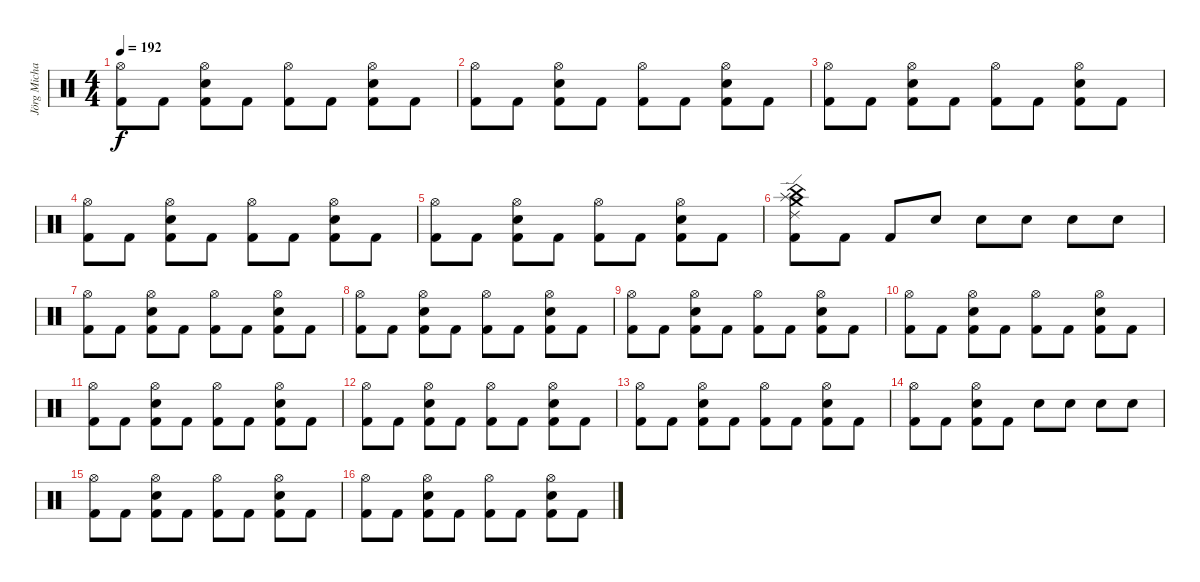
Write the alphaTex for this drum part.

\track ("Jörg Michael" "Jörg Micha") {instrument percussion}
\staff {score}
\articulation defaults
\ts (4 4)
\tempo 192
\clef neutral
\ks c
("Hi-Hat (open)" "Kick (hit) 2").8{dy f} "Kick (hit) 2".8 ("Electric Snare (hit)" "Hi-Hat (open)" "Kick (hit) 2").8 "Kick (hit) 2".8 ("Hi-Hat (open)" "Kick (hit) 2").8 "Kick (hit) 2".8 ("Electric Snare (hit)" "Hi-Hat (open)" "Kick (hit) 2").8 "Kick (hit) 2".8 |
("Hi-Hat (open)" "Kick (hit) 2").8 "Kick (hit) 2".8 ("Electric Snare (hit)" "Hi-Hat (open)" "Kick (hit) 2").8 "Kick (hit) 2".8 ("Hi-Hat (open)" "Kick (hit) 2").8 "Kick (hit) 2".8 ("Electric Snare (hit)" "Hi-Hat (open)" "Kick (hit) 2").8 "Kick (hit) 2".8 |
("Hi-Hat (open)" "Kick (hit) 2").8 "Kick (hit) 2".8 ("Electric Snare (hit)" "Hi-Hat (open)" "Kick (hit) 2").8 "Kick (hit) 2".8 ("Hi-Hat (open)" "Kick (hit) 2").8 "Kick (hit) 2".8 ("Electric Snare (hit)" "Hi-Hat (open)" "Kick (hit) 2").8 "Kick (hit) 2".8 |
("Hi-Hat (open)" "Kick (hit) 2").8 "Kick (hit) 2".8 ("Electric Snare (hit)" "Hi-Hat (open)" "Kick (hit) 2").8 "Kick (hit) 2".8 ("Hi-Hat (open)" "Kick (hit) 2").8 "Kick (hit) 2".8 ("Electric Snare (hit)" "Hi-Hat (open)" "Kick (hit) 2").8 "Kick (hit) 2".8 |
("Hi-Hat (open)" "Kick (hit) 2").8 "Kick (hit) 2".8 ("Electric Snare (hit)" "Hi-Hat (open)" "Kick (hit) 2").8 "Kick (hit) 2".8 ("Hi-Hat (open)" "Kick (hit) 2").8 "Kick (hit) 2".8 ("Electric Snare (hit)" "Hi-Hat (open)" "Kick (hit) 2").8 "Kick (hit) 2".8 |
("Ride (edge) 2" "Crash medium (hit)" "Splash (hit)" "China (hit)" "Kick (hit) 2").8 "Kick (hit) 2".8 "Kick (hit) 2".8 "Electric Snare (hit)".8{volume 6} "Electric Snare (hit)".8{volume 7} "Electric Snare (hit)".8{volume 8} "Electric Snare (hit)".8{volume 9} "Electric Snare (hit)".8{volume 10} |
("Hi-Hat (open)" "Kick (hit) 2").8{volume 11} "Kick (hit) 2".8 ("Electric Snare (hit)" "Hi-Hat (open)" "Kick (hit) 2").8 "Kick (hit) 2".8 ("Hi-Hat (open)" "Kick (hit) 2").8 "Kick (hit) 2".8 ("Electric Snare (hit)" "Hi-Hat (open)" "Kick (hit) 2").8 "Kick (hit) 2".8 |
("Hi-Hat (open)" "Kick (hit) 2").8 "Kick (hit) 2".8 ("Electric Snare (hit)" "Hi-Hat (open)" "Kick (hit) 2").8 "Kick (hit) 2".8 ("Hi-Hat (open)" "Kick (hit) 2").8 "Kick (hit) 2".8 ("Electric Snare (hit)" "Hi-Hat (open)" "Kick (hit) 2").8 "Kick (hit) 2".8 |
("Hi-Hat (open)" "Kick (hit) 2").8 "Kick (hit) 2".8 ("Electric Snare (hit)" "Hi-Hat (open)" "Kick (hit) 2").8 "Kick (hit) 2".8 ("Hi-Hat (open)" "Kick (hit) 2").8 "Kick (hit) 2".8 ("Electric Snare (hit)" "Hi-Hat (open)" "Kick (hit) 2").8 "Kick (hit) 2".8 |
("Hi-Hat (open)" "Kick (hit) 2").8 "Kick (hit) 2".8 ("Electric Snare (hit)" "Hi-Hat (open)" "Kick (hit) 2").8 "Kick (hit) 2".8 ("Hi-Hat (open)" "Kick (hit) 2").8 "Kick (hit) 2".8 ("Electric Snare (hit)" "Hi-Hat (open)" "Kick (hit) 2").8 "Kick (hit) 2".8 |
("Hi-Hat (open)" "Kick (hit) 2").8 "Kick (hit) 2".8 ("Electric Snare (hit)" "Hi-Hat (open)" "Kick (hit) 2").8 "Kick (hit) 2".8 ("Hi-Hat (open)" "Kick (hit) 2").8 "Kick (hit) 2".8 ("Electric Snare (hit)" "Hi-Hat (open)" "Kick (hit) 2").8 "Kick (hit) 2".8 |
("Hi-Hat (open)" "Kick (hit) 2").8 "Kick (hit) 2".8 ("Electric Snare (hit)" "Hi-Hat (open)" "Kick (hit) 2").8 "Kick (hit) 2".8 ("Hi-Hat (open)" "Kick (hit) 2").8 "Kick (hit) 2".8 ("Electric Snare (hit)" "Hi-Hat (open)" "Kick (hit) 2").8 "Kick (hit) 2".8 |
("Hi-Hat (open)" "Kick (hit) 2").8 "Kick (hit) 2".8 ("Electric Snare (hit)" "Hi-Hat (open)" "Kick (hit) 2").8 "Kick (hit) 2".8 ("Hi-Hat (open)" "Kick (hit) 2").8 "Kick (hit) 2".8 ("Electric Snare (hit)" "Hi-Hat (open)" "Kick (hit) 2").8 "Kick (hit) 2".8 |
("Hi-Hat (open)" "Kick (hit) 2").8 "Kick (hit) 2".8 ("Electric Snare (hit)" "Hi-Hat (open)" "Kick (hit) 2").8 "Kick (hit) 2".8 "Snare (hit) 2".8 "Snare (hit) 2".8 "Snare (hit) 2".8 "Snare (hit) 2".8 |
("Hi-Hat (open)" "Kick (hit) 2").8 "Kick (hit) 2".8 ("Electric Snare (hit)" "Hi-Hat (open)" "Kick (hit) 2").8 "Kick (hit) 2".8 ("Hi-Hat (open)" "Kick (hit) 2").8 "Kick (hit) 2".8 ("Electric Snare (hit)" "Hi-Hat (open)" "Kick (hit) 2").8 "Kick (hit) 2".8 |
("Hi-Hat (open)" "Kick (hit) 2").8 "Kick (hit) 2".8 ("Electric Snare (hit)" "Hi-Hat (open)" "Kick (hit) 2").8 "Kick (hit) 2".8 ("Hi-Hat (open)" "Kick (hit) 2").8 "Kick (hit) 2".8 ("Electric Snare (hit)" "Hi-Hat (open)" "Kick (hit) 2").8 "Kick (hit) 2".8
